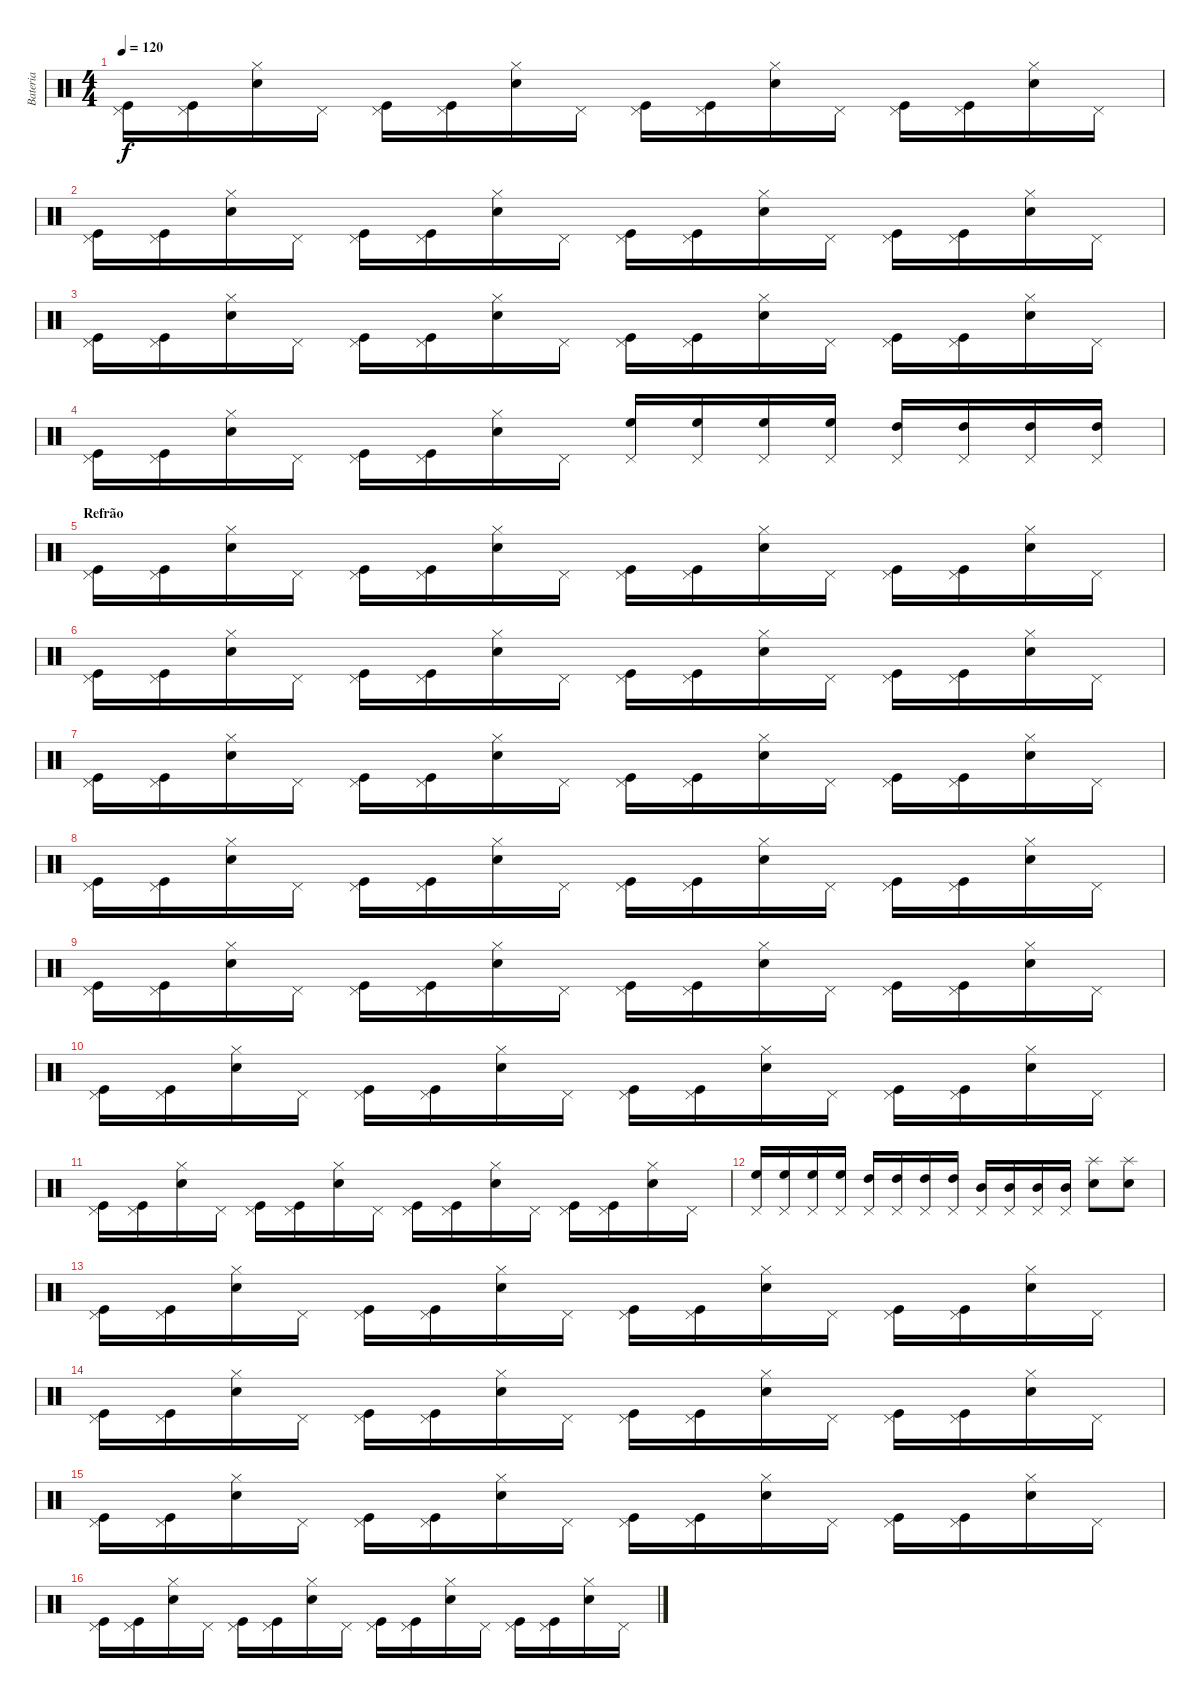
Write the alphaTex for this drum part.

\track ("Bateria" "Bateria") {instrument percussion}
\staff {score}
\articulation defaults
\ts (4 4)
\tempo 120
\clef neutral
\ks c
("Pedal Hi-Hat (hit)" "Kick (hit)").16{dy f} ("Pedal Hi-Hat (hit)" "Kick (hit)").16 ("Hi-Hat (closed)" "Electric Snare (hit)").16 "Pedal Hi-Hat (hit)".16 ("Pedal Hi-Hat (hit)" "Kick (hit)").16 ("Pedal Hi-Hat (hit)" "Kick (hit)").16 ("Hi-Hat (closed)" "Electric Snare (hit)").16 "Pedal Hi-Hat (hit)".16 ("Pedal Hi-Hat (hit)" "Kick (hit)").16 ("Pedal Hi-Hat (hit)" "Kick (hit)").16 ("Hi-Hat (closed)" "Electric Snare (hit)").16 "Pedal Hi-Hat (hit)".16 ("Pedal Hi-Hat (hit)" "Kick (hit)").16 ("Pedal Hi-Hat (hit)" "Kick (hit)").16 ("Hi-Hat (closed)" "Electric Snare (hit)").16 "Pedal Hi-Hat (hit)".16 |
("Pedal Hi-Hat (hit)" "Kick (hit)").16 ("Pedal Hi-Hat (hit)" "Kick (hit)").16 ("Hi-Hat (closed)" "Electric Snare (hit)").16 "Pedal Hi-Hat (hit)".16 ("Pedal Hi-Hat (hit)" "Kick (hit)").16 ("Pedal Hi-Hat (hit)" "Kick (hit)").16 ("Hi-Hat (closed)" "Electric Snare (hit)").16 "Pedal Hi-Hat (hit)".16 ("Pedal Hi-Hat (hit)" "Kick (hit)").16 ("Pedal Hi-Hat (hit)" "Kick (hit)").16 ("Hi-Hat (closed)" "Electric Snare (hit)").16 "Pedal Hi-Hat (hit)".16 ("Pedal Hi-Hat (hit)" "Kick (hit)").16 ("Pedal Hi-Hat (hit)" "Kick (hit)").16 ("Hi-Hat (closed)" "Electric Snare (hit)").16 "Pedal Hi-Hat (hit)".16 |
("Pedal Hi-Hat (hit)" "Kick (hit)").16 ("Pedal Hi-Hat (hit)" "Kick (hit)").16 ("Hi-Hat (closed)" "Electric Snare (hit)").16 "Pedal Hi-Hat (hit)".16 ("Pedal Hi-Hat (hit)" "Kick (hit)").16 ("Pedal Hi-Hat (hit)" "Kick (hit)").16 ("Hi-Hat (closed)" "Electric Snare (hit)").16 "Pedal Hi-Hat (hit)".16 ("Pedal Hi-Hat (hit)" "Kick (hit)").16 ("Pedal Hi-Hat (hit)" "Kick (hit)").16 ("Hi-Hat (closed)" "Electric Snare (hit)").16 "Pedal Hi-Hat (hit)".16 ("Pedal Hi-Hat (hit)" "Kick (hit)").16 ("Pedal Hi-Hat (hit)" "Kick (hit)").16 ("Hi-Hat (closed)" "Electric Snare (hit)").16 "Pedal Hi-Hat (hit)".16 |
("Pedal Hi-Hat (hit)" "Kick (hit)").16 ("Pedal Hi-Hat (hit)" "Kick (hit)").16 ("Hi-Hat (closed)" "Electric Snare (hit)").16 "Pedal Hi-Hat (hit)".16 ("Pedal Hi-Hat (hit)" "Kick (hit)").16 ("Pedal Hi-Hat (hit)" "Kick (hit)").16 ("Hi-Hat (closed)" "Electric Snare (hit)").16 "Pedal Hi-Hat (hit)".16 ("Pedal Hi-Hat (hit)" "High Floor Tom (hit)").16 ("Pedal Hi-Hat (hit)" "High Floor Tom (hit)").16 ("Pedal Hi-Hat (hit)" "High Floor Tom (hit)").16 ("Pedal Hi-Hat (hit)" "High Floor Tom (hit)").16 ("Pedal Hi-Hat (hit)" "High Tom (hit)").16 ("Pedal Hi-Hat (hit)" "High Tom (hit)").16 ("Pedal Hi-Hat (hit)" "High Tom (hit)").16 ("Pedal Hi-Hat (hit)" "High Tom (hit)").16 |
\section ("" "Refrão")
("Pedal Hi-Hat (hit)" "Kick (hit)").16 ("Pedal Hi-Hat (hit)" "Kick (hit)").16 ("Hi-Hat (closed)" "Electric Snare (hit)").16 "Pedal Hi-Hat (hit)".16 ("Pedal Hi-Hat (hit)" "Kick (hit)").16 ("Pedal Hi-Hat (hit)" "Kick (hit)").16 ("Hi-Hat (closed)" "Electric Snare (hit)").16 "Pedal Hi-Hat (hit)".16 ("Pedal Hi-Hat (hit)" "Kick (hit)").16 ("Pedal Hi-Hat (hit)" "Kick (hit)").16 ("Hi-Hat (closed)" "Electric Snare (hit)").16 "Pedal Hi-Hat (hit)".16 ("Pedal Hi-Hat (hit)" "Kick (hit)").16 ("Pedal Hi-Hat (hit)" "Kick (hit)").16 ("Hi-Hat (closed)" "Electric Snare (hit)").16 "Pedal Hi-Hat (hit)".16 |
("Pedal Hi-Hat (hit)" "Kick (hit)").16 ("Pedal Hi-Hat (hit)" "Kick (hit)").16 ("Hi-Hat (closed)" "Electric Snare (hit)").16 "Pedal Hi-Hat (hit)".16 ("Pedal Hi-Hat (hit)" "Kick (hit)").16 ("Pedal Hi-Hat (hit)" "Kick (hit)").16 ("Hi-Hat (closed)" "Electric Snare (hit)").16 "Pedal Hi-Hat (hit)".16 ("Pedal Hi-Hat (hit)" "Kick (hit)").16 ("Pedal Hi-Hat (hit)" "Kick (hit)").16 ("Hi-Hat (closed)" "Electric Snare (hit)").16 "Pedal Hi-Hat (hit)".16 ("Pedal Hi-Hat (hit)" "Kick (hit)").16 ("Pedal Hi-Hat (hit)" "Kick (hit)").16 ("Hi-Hat (closed)" "Electric Snare (hit)").16 "Pedal Hi-Hat (hit)".16 |
("Pedal Hi-Hat (hit)" "Kick (hit)").16 ("Pedal Hi-Hat (hit)" "Kick (hit)").16 ("Hi-Hat (closed)" "Electric Snare (hit)").16 "Pedal Hi-Hat (hit)".16 ("Pedal Hi-Hat (hit)" "Kick (hit)").16 ("Pedal Hi-Hat (hit)" "Kick (hit)").16 ("Hi-Hat (closed)" "Electric Snare (hit)").16 "Pedal Hi-Hat (hit)".16 ("Pedal Hi-Hat (hit)" "Kick (hit)").16 ("Pedal Hi-Hat (hit)" "Kick (hit)").16 ("Hi-Hat (closed)" "Electric Snare (hit)").16 "Pedal Hi-Hat (hit)".16 ("Pedal Hi-Hat (hit)" "Kick (hit)").16 ("Pedal Hi-Hat (hit)" "Kick (hit)").16 ("Hi-Hat (closed)" "Electric Snare (hit)").16 "Pedal Hi-Hat (hit)".16 |
("Pedal Hi-Hat (hit)" "Kick (hit)").16 ("Pedal Hi-Hat (hit)" "Kick (hit)").16 ("Hi-Hat (closed)" "Electric Snare (hit)").16 "Pedal Hi-Hat (hit)".16 ("Pedal Hi-Hat (hit)" "Kick (hit)").16 ("Pedal Hi-Hat (hit)" "Kick (hit)").16 ("Hi-Hat (closed)" "Electric Snare (hit)").16 "Pedal Hi-Hat (hit)".16 ("Pedal Hi-Hat (hit)" "Kick (hit)").16 ("Pedal Hi-Hat (hit)" "Kick (hit)").16 ("Hi-Hat (closed)" "Electric Snare (hit)").16 "Pedal Hi-Hat (hit)".16 ("Pedal Hi-Hat (hit)" "Kick (hit)").16 ("Pedal Hi-Hat (hit)" "Kick (hit)").16 ("Hi-Hat (closed)" "Electric Snare (hit)").16 "Pedal Hi-Hat (hit)".16 |
("Pedal Hi-Hat (hit)" "Kick (hit)").16 ("Pedal Hi-Hat (hit)" "Kick (hit)").16 ("Hi-Hat (closed)" "Electric Snare (hit)").16 "Pedal Hi-Hat (hit)".16 ("Pedal Hi-Hat (hit)" "Kick (hit)").16 ("Pedal Hi-Hat (hit)" "Kick (hit)").16 ("Hi-Hat (closed)" "Electric Snare (hit)").16 "Pedal Hi-Hat (hit)".16 ("Pedal Hi-Hat (hit)" "Kick (hit)").16 ("Pedal Hi-Hat (hit)" "Kick (hit)").16 ("Hi-Hat (closed)" "Electric Snare (hit)").16 "Pedal Hi-Hat (hit)".16 ("Pedal Hi-Hat (hit)" "Kick (hit)").16 ("Pedal Hi-Hat (hit)" "Kick (hit)").16 ("Hi-Hat (closed)" "Electric Snare (hit)").16 "Pedal Hi-Hat (hit)".16 |
("Pedal Hi-Hat (hit)" "Kick (hit)").16 ("Pedal Hi-Hat (hit)" "Kick (hit)").16 ("Hi-Hat (closed)" "Electric Snare (hit)").16 "Pedal Hi-Hat (hit)".16 ("Pedal Hi-Hat (hit)" "Kick (hit)").16 ("Pedal Hi-Hat (hit)" "Kick (hit)").16 ("Hi-Hat (closed)" "Electric Snare (hit)").16 "Pedal Hi-Hat (hit)".16 ("Pedal Hi-Hat (hit)" "Kick (hit)").16 ("Pedal Hi-Hat (hit)" "Kick (hit)").16 ("Hi-Hat (closed)" "Electric Snare (hit)").16 "Pedal Hi-Hat (hit)".16 ("Pedal Hi-Hat (hit)" "Kick (hit)").16 ("Pedal Hi-Hat (hit)" "Kick (hit)").16 ("Hi-Hat (closed)" "Electric Snare (hit)").16 "Pedal Hi-Hat (hit)".16 |
("Pedal Hi-Hat (hit)" "Kick (hit)").16 ("Pedal Hi-Hat (hit)" "Kick (hit)").16 ("Hi-Hat (closed)" "Electric Snare (hit)").16 "Pedal Hi-Hat (hit)".16 ("Pedal Hi-Hat (hit)" "Kick (hit)").16 ("Pedal Hi-Hat (hit)" "Kick (hit)").16 ("Hi-Hat (closed)" "Electric Snare (hit)").16 "Pedal Hi-Hat (hit)".16 ("Pedal Hi-Hat (hit)" "Kick (hit)").16 ("Pedal Hi-Hat (hit)" "Kick (hit)").16 ("Hi-Hat (closed)" "Electric Snare (hit)").16 "Pedal Hi-Hat (hit)".16 ("Pedal Hi-Hat (hit)" "Kick (hit)").16 ("Pedal Hi-Hat (hit)" "Kick (hit)").16 ("Hi-Hat (closed)" "Electric Snare (hit)").16 "Pedal Hi-Hat (hit)".16 |
("High Floor Tom (hit)" "Pedal Hi-Hat (hit)").16 ("High Floor Tom (hit)" "Pedal Hi-Hat (hit)").16 ("High Floor Tom (hit)" "Pedal Hi-Hat (hit)").16 ("High Floor Tom (hit)" "Pedal Hi-Hat (hit)").16 ("High Tom (hit)" "Pedal Hi-Hat (hit)").16 ("High Tom (hit)" "Pedal Hi-Hat (hit)").16 ("High Tom (hit)" "Pedal Hi-Hat (hit)").16 ("High Tom (hit)" "Pedal Hi-Hat (hit)").16 ("Mid Tom (hit)" "Pedal Hi-Hat (hit)").16 ("Mid Tom (hit)" "Pedal Hi-Hat (hit)").16 ("Mid Tom (hit)" "Pedal Hi-Hat (hit)").16 ("Mid Tom (hit)" "Pedal Hi-Hat (hit)").16 ("Electric Snare (hit)" "Splash (hit)").8 ("Electric Snare (hit)" "Splash (hit)").8 |
("Pedal Hi-Hat (hit)" "Kick (hit)").16 ("Pedal Hi-Hat (hit)" "Kick (hit)").16 ("Hi-Hat (closed)" "Electric Snare (hit)").16 "Pedal Hi-Hat (hit)".16 ("Pedal Hi-Hat (hit)" "Kick (hit)").16 ("Pedal Hi-Hat (hit)" "Kick (hit)").16 ("Hi-Hat (closed)" "Electric Snare (hit)").16 "Pedal Hi-Hat (hit)".16 ("Pedal Hi-Hat (hit)" "Kick (hit)").16 ("Pedal Hi-Hat (hit)" "Kick (hit)").16 ("Hi-Hat (closed)" "Electric Snare (hit)").16 "Pedal Hi-Hat (hit)".16 ("Pedal Hi-Hat (hit)" "Kick (hit)").16 ("Pedal Hi-Hat (hit)" "Kick (hit)").16 ("Hi-Hat (closed)" "Electric Snare (hit)").16 "Pedal Hi-Hat (hit)".16 |
("Pedal Hi-Hat (hit)" "Kick (hit)").16 ("Pedal Hi-Hat (hit)" "Kick (hit)").16 ("Hi-Hat (closed)" "Electric Snare (hit)").16 "Pedal Hi-Hat (hit)".16 ("Pedal Hi-Hat (hit)" "Kick (hit)").16 ("Pedal Hi-Hat (hit)" "Kick (hit)").16 ("Hi-Hat (closed)" "Electric Snare (hit)").16 "Pedal Hi-Hat (hit)".16 ("Pedal Hi-Hat (hit)" "Kick (hit)").16 ("Pedal Hi-Hat (hit)" "Kick (hit)").16 ("Hi-Hat (closed)" "Electric Snare (hit)").16 "Pedal Hi-Hat (hit)".16 ("Pedal Hi-Hat (hit)" "Kick (hit)").16 ("Pedal Hi-Hat (hit)" "Kick (hit)").16 ("Hi-Hat (closed)" "Electric Snare (hit)").16 "Pedal Hi-Hat (hit)".16 |
("Pedal Hi-Hat (hit)" "Kick (hit)").16 ("Pedal Hi-Hat (hit)" "Kick (hit)").16 ("Hi-Hat (closed)" "Electric Snare (hit)").16 "Pedal Hi-Hat (hit)".16 ("Pedal Hi-Hat (hit)" "Kick (hit)").16 ("Pedal Hi-Hat (hit)" "Kick (hit)").16 ("Hi-Hat (closed)" "Electric Snare (hit)").16 "Pedal Hi-Hat (hit)".16 ("Pedal Hi-Hat (hit)" "Kick (hit)").16 ("Pedal Hi-Hat (hit)" "Kick (hit)").16 ("Hi-Hat (closed)" "Electric Snare (hit)").16 "Pedal Hi-Hat (hit)".16 ("Pedal Hi-Hat (hit)" "Kick (hit)").16 ("Pedal Hi-Hat (hit)" "Kick (hit)").16 ("Hi-Hat (closed)" "Electric Snare (hit)").16 "Pedal Hi-Hat (hit)".16 |
("Pedal Hi-Hat (hit)" "Kick (hit)").16 ("Pedal Hi-Hat (hit)" "Kick (hit)").16 ("Hi-Hat (closed)" "Electric Snare (hit)").16 "Pedal Hi-Hat (hit)".16 ("Pedal Hi-Hat (hit)" "Kick (hit)").16 ("Pedal Hi-Hat (hit)" "Kick (hit)").16 ("Hi-Hat (closed)" "Electric Snare (hit)").16 "Pedal Hi-Hat (hit)".16 ("Pedal Hi-Hat (hit)" "Kick (hit)").16 ("Pedal Hi-Hat (hit)" "Kick (hit)").16 ("Hi-Hat (closed)" "Electric Snare (hit)").16 "Pedal Hi-Hat (hit)".16 ("Pedal Hi-Hat (hit)" "Kick (hit)").16 ("Pedal Hi-Hat (hit)" "Kick (hit)").16 ("Hi-Hat (closed)" "Electric Snare (hit)").16 "Pedal Hi-Hat (hit)".16
